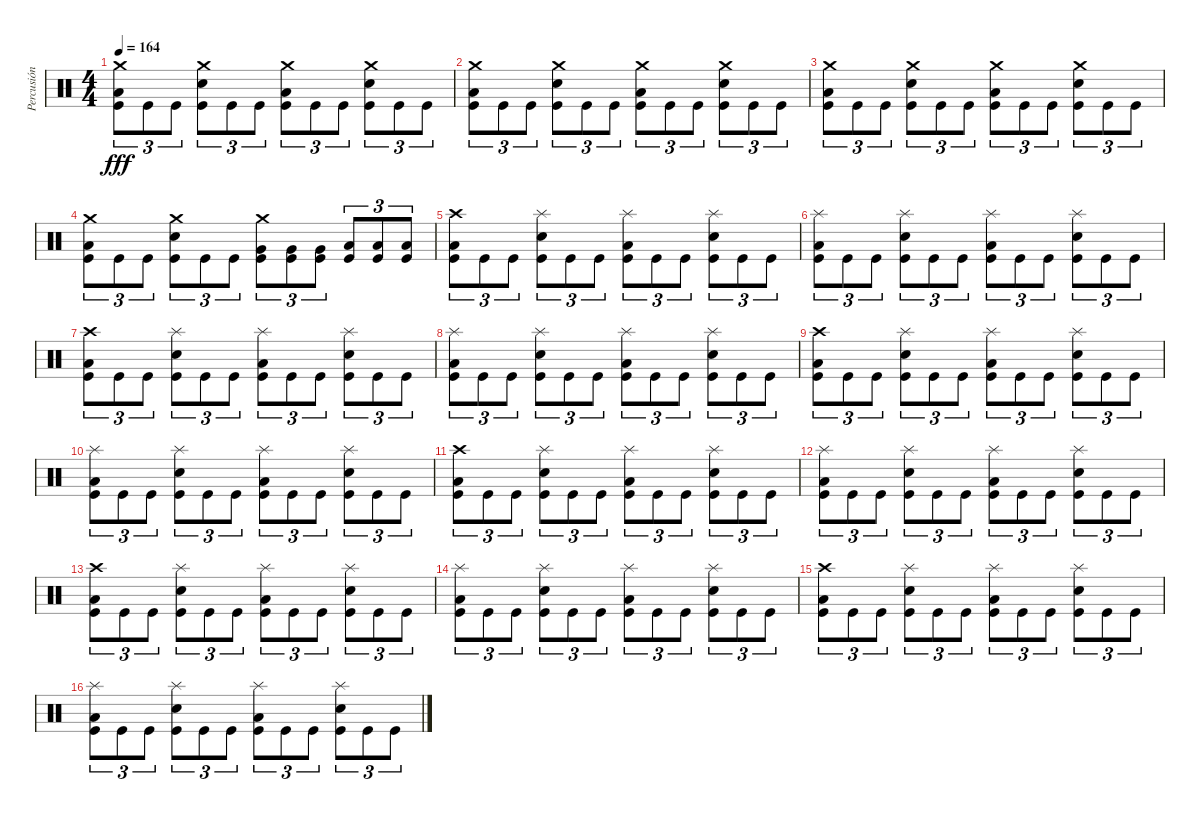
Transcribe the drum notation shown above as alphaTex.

\track ("Percusión" "Percusión") {instrument percussion}
\staff {score}
\articulation defaults
\ts (4 4)
\tempo 164
\clef neutral
\ks c
("Crash medium (hit)" "Low Floor Tom (hit)" "Kick (hit)").8{tu (3 2) dy fff} "Kick (hit)".8{tu (3 2)} "Kick (hit)".8{tu (3 2)} ("Crash medium (hit)" "Snare (hit) 2" "Kick (hit)").8{tu (3 2)} "Kick (hit)".8{tu (3 2)} "Kick (hit)".8{tu (3 2)} ("Crash medium (hit)" "Low Floor Tom (hit)" "Kick (hit)").8{tu (3 2)} "Kick (hit)".8{tu (3 2)} "Kick (hit)".8{tu (3 2)} ("Crash medium (hit)" "Snare (hit) 2" "Kick (hit)").8{tu (3 2)} "Kick (hit)".8{tu (3 2)} "Kick (hit)".8{tu (3 2)} |
("Crash medium (hit)" "Low Floor Tom (hit)" "Kick (hit)").8{tu (3 2)} "Kick (hit)".8{tu (3 2)} "Kick (hit)".8{tu (3 2)} ("Crash medium (hit)" "Snare (hit) 2" "Kick (hit)").8{tu (3 2)} "Kick (hit)".8{tu (3 2)} "Kick (hit)".8{tu (3 2)} ("Crash medium (hit)" "Low Floor Tom (hit)" "Kick (hit)").8{tu (3 2)} "Kick (hit)".8{tu (3 2)} "Kick (hit)".8{tu (3 2)} ("Crash medium (hit)" "Snare (hit) 2" "Kick (hit)").8{tu (3 2)} "Kick (hit)".8{tu (3 2)} "Kick (hit)".8{tu (3 2)} |
("Crash medium (hit)" "Low Floor Tom (hit)" "Kick (hit)").8{tu (3 2)} "Kick (hit)".8{tu (3 2)} "Kick (hit)".8{tu (3 2)} ("Crash medium (hit)" "Snare (hit) 2" "Kick (hit)").8{tu (3 2)} "Kick (hit)".8{tu (3 2)} "Kick (hit)".8{tu (3 2)} ("Crash medium (hit)" "Low Floor Tom (hit)" "Kick (hit)").8{tu (3 2)} "Kick (hit)".8{tu (3 2)} "Kick (hit)".8{tu (3 2)} ("Crash medium (hit)" "Snare (hit) 2" "Kick (hit)").8{tu (3 2)} "Kick (hit)".8{tu (3 2)} "Kick (hit)".8{tu (3 2)} |
("Crash medium (hit)" "Low Floor Tom (hit)" "Kick (hit)").8{tu (3 2)} "Kick (hit)".8{tu (3 2)} "Kick (hit)".8{tu (3 2)} ("Crash medium (hit)" "Snare (hit) 2" "Kick (hit)").8{tu (3 2)} "Kick (hit)".8{tu (3 2)} "Kick (hit)".8{tu (3 2)} ("Crash medium (hit)" "Very Low Tom (hit)" "Kick (hit)").8{tu (3 2)} ("Very Low Tom (hit)" "Kick (hit)").8{tu (3 2)} ("Very Low Tom (hit)" "Kick (hit)").8{tu (3 2)} ("Low Floor Tom (hit)" "Kick (hit)").8{tu (3 2)} ("Low Floor Tom (hit)" "Kick (hit)").8{tu (3 2)} ("Low Floor Tom (hit)" "Kick (hit)").8{tu (3 2)} |
("Crash high (hit)" "Low Floor Tom (hit)" "Kick (hit)").8{tu (3 2)} "Kick (hit)".8{tu (3 2)} "Kick (hit)".8{tu (3 2)} ("Splash (hit)" "Snare (hit) 2" "Kick (hit)").8{tu (3 2)} "Kick (hit)".8{tu (3 2)} "Kick (hit)".8{tu (3 2)} ("Splash (hit)" "Low Floor Tom (hit)" "Kick (hit)").8{tu (3 2)} "Kick (hit)".8{tu (3 2)} "Kick (hit)".8{tu (3 2)} ("Splash (hit)" "Snare (hit) 2" "Kick (hit)").8{tu (3 2)} "Kick (hit)".8{tu (3 2)} "Kick (hit)".8{tu (3 2)} |
("Splash (hit)" "Low Floor Tom (hit)" "Kick (hit)").8{tu (3 2)} "Kick (hit)".8{tu (3 2)} "Kick (hit)".8{tu (3 2)} ("Splash (hit)" "Snare (hit) 2" "Kick (hit)").8{tu (3 2)} "Kick (hit)".8{tu (3 2)} "Kick (hit)".8{tu (3 2)} ("Splash (hit)" "Low Floor Tom (hit)" "Kick (hit)").8{tu (3 2)} "Kick (hit)".8{tu (3 2)} "Kick (hit)".8{tu (3 2)} ("Splash (hit)" "Snare (hit) 2" "Kick (hit)").8{tu (3 2)} "Kick (hit)".8{tu (3 2)} "Kick (hit)".8{tu (3 2)} |
("Crash high (hit)" "Low Floor Tom (hit)" "Kick (hit)").8{tu (3 2)} "Kick (hit)".8{tu (3 2)} "Kick (hit)".8{tu (3 2)} ("Splash (hit)" "Snare (hit) 2" "Kick (hit)").8{tu (3 2)} "Kick (hit)".8{tu (3 2)} "Kick (hit)".8{tu (3 2)} ("Splash (hit)" "Low Floor Tom (hit)" "Kick (hit)").8{tu (3 2)} "Kick (hit)".8{tu (3 2)} "Kick (hit)".8{tu (3 2)} ("Splash (hit)" "Snare (hit) 2" "Kick (hit)").8{tu (3 2)} "Kick (hit)".8{tu (3 2)} "Kick (hit)".8{tu (3 2)} |
("Splash (hit)" "Low Floor Tom (hit)" "Kick (hit)").8{tu (3 2)} "Kick (hit)".8{tu (3 2)} "Kick (hit)".8{tu (3 2)} ("Splash (hit)" "Snare (hit) 2" "Kick (hit)").8{tu (3 2)} "Kick (hit)".8{tu (3 2)} "Kick (hit)".8{tu (3 2)} ("Splash (hit)" "Low Floor Tom (hit)" "Kick (hit)").8{tu (3 2)} "Kick (hit)".8{tu (3 2)} "Kick (hit)".8{tu (3 2)} ("Splash (hit)" "Snare (hit) 2" "Kick (hit)").8{tu (3 2)} "Kick (hit)".8{tu (3 2)} "Kick (hit)".8{tu (3 2)} |
("Crash high (hit)" "Low Floor Tom (hit)" "Kick (hit)").8{tu (3 2)} "Kick (hit)".8{tu (3 2)} "Kick (hit)".8{tu (3 2)} ("Splash (hit)" "Snare (hit) 2" "Kick (hit)").8{tu (3 2)} "Kick (hit)".8{tu (3 2)} "Kick (hit)".8{tu (3 2)} ("Splash (hit)" "Low Floor Tom (hit)" "Kick (hit)").8{tu (3 2)} "Kick (hit)".8{tu (3 2)} "Kick (hit)".8{tu (3 2)} ("Splash (hit)" "Snare (hit) 2" "Kick (hit)").8{tu (3 2)} "Kick (hit)".8{tu (3 2)} "Kick (hit)".8{tu (3 2)} |
("Splash (hit)" "Low Floor Tom (hit)" "Kick (hit)").8{tu (3 2)} "Kick (hit)".8{tu (3 2)} "Kick (hit)".8{tu (3 2)} ("Splash (hit)" "Snare (hit) 2" "Kick (hit)").8{tu (3 2)} "Kick (hit)".8{tu (3 2)} "Kick (hit)".8{tu (3 2)} ("Splash (hit)" "Low Floor Tom (hit)" "Kick (hit)").8{tu (3 2)} "Kick (hit)".8{tu (3 2)} "Kick (hit)".8{tu (3 2)} ("Splash (hit)" "Snare (hit) 2" "Kick (hit)").8{tu (3 2)} "Kick (hit)".8{tu (3 2)} "Kick (hit)".8{tu (3 2)} |
("Crash high (hit)" "Low Floor Tom (hit)" "Kick (hit)").8{tu (3 2)} "Kick (hit)".8{tu (3 2)} "Kick (hit)".8{tu (3 2)} ("Splash (hit)" "Snare (hit) 2" "Kick (hit)").8{tu (3 2)} "Kick (hit)".8{tu (3 2)} "Kick (hit)".8{tu (3 2)} ("Splash (hit)" "Low Floor Tom (hit)" "Kick (hit)").8{tu (3 2)} "Kick (hit)".8{tu (3 2)} "Kick (hit)".8{tu (3 2)} ("Splash (hit)" "Snare (hit) 2" "Kick (hit)").8{tu (3 2)} "Kick (hit)".8{tu (3 2)} "Kick (hit)".8{tu (3 2)} |
("Splash (hit)" "Low Floor Tom (hit)" "Kick (hit)").8{tu (3 2)} "Kick (hit)".8{tu (3 2)} "Kick (hit)".8{tu (3 2)} ("Splash (hit)" "Snare (hit) 2" "Kick (hit)").8{tu (3 2)} "Kick (hit)".8{tu (3 2)} "Kick (hit)".8{tu (3 2)} ("Splash (hit)" "Low Floor Tom (hit)" "Kick (hit)").8{tu (3 2)} "Kick (hit)".8{tu (3 2)} "Kick (hit)".8{tu (3 2)} ("Splash (hit)" "Snare (hit) 2" "Kick (hit)").8{tu (3 2)} "Kick (hit)".8{tu (3 2)} "Kick (hit)".8{tu (3 2)} |
("Crash high (hit)" "Low Floor Tom (hit)" "Kick (hit)").8{tu (3 2)} "Kick (hit)".8{tu (3 2)} "Kick (hit)".8{tu (3 2)} ("Splash (hit)" "Snare (hit) 2" "Kick (hit)").8{tu (3 2)} "Kick (hit)".8{tu (3 2)} "Kick (hit)".8{tu (3 2)} ("Splash (hit)" "Low Floor Tom (hit)" "Kick (hit)").8{tu (3 2)} "Kick (hit)".8{tu (3 2)} "Kick (hit)".8{tu (3 2)} ("Splash (hit)" "Snare (hit) 2" "Kick (hit)").8{tu (3 2)} "Kick (hit)".8{tu (3 2)} "Kick (hit)".8{tu (3 2)} |
("Splash (hit)" "Low Floor Tom (hit)" "Kick (hit)").8{tu (3 2)} "Kick (hit)".8{tu (3 2)} "Kick (hit)".8{tu (3 2)} ("Splash (hit)" "Snare (hit) 2" "Kick (hit)").8{tu (3 2)} "Kick (hit)".8{tu (3 2)} "Kick (hit)".8{tu (3 2)} ("Splash (hit)" "Low Floor Tom (hit)" "Kick (hit)").8{tu (3 2)} "Kick (hit)".8{tu (3 2)} "Kick (hit)".8{tu (3 2)} ("Splash (hit)" "Snare (hit) 2" "Kick (hit)").8{tu (3 2)} "Kick (hit)".8{tu (3 2)} "Kick (hit)".8{tu (3 2)} |
("Crash high (hit)" "Low Floor Tom (hit)" "Kick (hit)").8{tu (3 2)} "Kick (hit)".8{tu (3 2)} "Kick (hit)".8{tu (3 2)} ("Splash (hit)" "Snare (hit) 2" "Kick (hit)").8{tu (3 2)} "Kick (hit)".8{tu (3 2)} "Kick (hit)".8{tu (3 2)} ("Splash (hit)" "Low Floor Tom (hit)" "Kick (hit)").8{tu (3 2)} "Kick (hit)".8{tu (3 2)} "Kick (hit)".8{tu (3 2)} ("Splash (hit)" "Snare (hit) 2" "Kick (hit)").8{tu (3 2)} "Kick (hit)".8{tu (3 2)} "Kick (hit)".8{tu (3 2)} |
("Splash (hit)" "Low Floor Tom (hit)" "Kick (hit)").8{tu (3 2)} "Kick (hit)".8{tu (3 2)} "Kick (hit)".8{tu (3 2)} ("Splash (hit)" "Snare (hit) 2" "Kick (hit)").8{tu (3 2)} "Kick (hit)".8{tu (3 2)} "Kick (hit)".8{tu (3 2)} ("Splash (hit)" "Low Floor Tom (hit)" "Kick (hit)").8{tu (3 2)} "Kick (hit)".8{tu (3 2)} "Kick (hit)".8{tu (3 2)} ("Splash (hit)" "Snare (hit) 2" "Kick (hit)").8{tu (3 2)} "Kick (hit)".8{tu (3 2)} "Kick (hit)".8{tu (3 2)}
